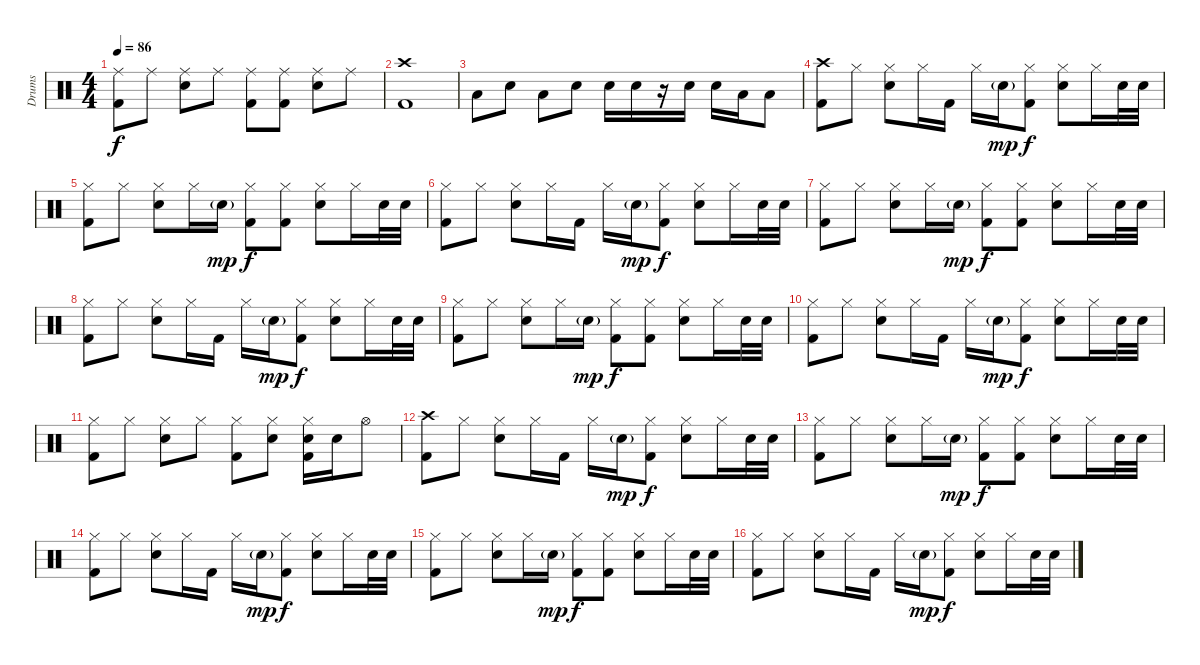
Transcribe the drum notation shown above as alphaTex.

\track ("Drums" "Drums") {instrument percussion}
\staff {score}
\articulation defaults
\ts (4 4)
\tempo 86
\clef neutral
\ks c
("Ride (middle)" "Kick (hit) 2").8{dy f} "Ride (middle)".8 ("Ride (middle)" "Snare (hit) 2").8 "Ride (middle)".8 ("Ride (middle)" "Kick (hit) 2").8 ("Ride (middle)" "Kick (hit) 2").8 ("Ride (middle)" "Snare (hit) 2").8 "Ride (middle)".8 |
("Crash high (hit)" "Kick (hit) 2").1 |
"Low Floor Tom (hit)".8 "Snare (hit) 2".8 "Low Tom (hit)".8 "Snare (hit) 2".8 "Snare (hit) 2".16 "Snare (hit) 2".16 r.16 "Snare (hit) 2".16 "Snare (hit) 2".16 "Low Tom (hit)".16 "Low Floor Tom (hit)".8 |
("Crash high (hit)" "Kick (hit) 2").8 "Hi-Hat (closed)".8 ("Hi-Hat (closed)" "Snare (hit) 2").8 "Hi-Hat (closed)".16 "Kick (hit) 2".16 "Hi-Hat (closed)".16 "Snare (hit) 2"{g}.16{dy mp} ("Hi-Hat (closed)" "Kick (hit) 2").8{dy f} ("Hi-Hat (closed)" "Snare (hit) 2").8 "Hi-Hat (closed)".16 "Snare (hit) 2".32 "Snare (hit) 2".32 |
("Hi-Hat (closed)" "Kick (hit) 2").8 "Hi-Hat (closed)".8 ("Hi-Hat (closed)" "Snare (hit) 2").8 "Hi-Hat (closed)".16 "Snare (hit) 2"{g}.16{dy mp} ("Hi-Hat (closed)" "Kick (hit) 2").8{dy f} ("Hi-Hat (closed)" "Kick (hit) 2").8 ("Hi-Hat (closed)" "Snare (hit) 2").8 "Hi-Hat (closed)".16 "Snare (hit) 2".32 "Snare (hit) 2".32 |
("Hi-Hat (closed)" "Kick (hit) 2").8 "Hi-Hat (closed)".8 ("Hi-Hat (closed)" "Snare (hit) 2").8 "Hi-Hat (closed)".16 "Kick (hit) 2".16 "Hi-Hat (closed)".16 "Snare (hit) 2"{g}.16{dy mp} ("Hi-Hat (closed)" "Kick (hit) 2").8{dy f} ("Hi-Hat (closed)" "Snare (hit) 2").8 "Hi-Hat (closed)".16 "Snare (hit) 2".32 "Snare (hit) 2".32 |
("Hi-Hat (closed)" "Kick (hit) 2").8 "Hi-Hat (closed)".8 ("Hi-Hat (closed)" "Snare (hit) 2").8 "Hi-Hat (closed)".16 "Snare (hit) 2"{g}.16{dy mp} ("Hi-Hat (closed)" "Kick (hit) 2").8{dy f} ("Hi-Hat (closed)" "Kick (hit) 2").8 ("Hi-Hat (closed)" "Snare (hit) 2").8 "Hi-Hat (closed)".16 "Snare (hit) 2".32 "Snare (hit) 2".32 |
("Hi-Hat (closed)" "Kick (hit) 2").8 "Hi-Hat (closed)".8 ("Hi-Hat (closed)" "Snare (hit) 2").8 "Hi-Hat (closed)".16 "Kick (hit) 2".16 "Hi-Hat (closed)".16 "Snare (hit) 2"{g}.16{dy mp} ("Hi-Hat (closed)" "Kick (hit) 2").8{dy f} ("Hi-Hat (closed)" "Snare (hit) 2").8 "Hi-Hat (closed)".16 "Snare (hit) 2".32 "Snare (hit) 2".32 |
("Hi-Hat (closed)" "Kick (hit) 2").8 "Hi-Hat (closed)".8 ("Hi-Hat (closed)" "Snare (hit) 2").8 "Hi-Hat (closed)".16 "Snare (hit) 2"{g}.16{dy mp} ("Hi-Hat (closed)" "Kick (hit) 2").8{dy f} ("Hi-Hat (closed)" "Kick (hit) 2").8 ("Hi-Hat (closed)" "Snare (hit) 2").8 "Hi-Hat (closed)".16 "Snare (hit) 2".32 "Snare (hit) 2".32 |
("Hi-Hat (closed)" "Kick (hit) 2").8 "Hi-Hat (closed)".8 ("Hi-Hat (closed)" "Snare (hit) 2").8 "Hi-Hat (closed)".16 "Kick (hit) 2".16 "Hi-Hat (closed)".16 "Snare (hit) 2"{g}.16{dy mp} ("Hi-Hat (closed)" "Kick (hit) 2").8{dy f} ("Hi-Hat (closed)" "Snare (hit) 2").8 "Hi-Hat (closed)".16 "Snare (hit) 2".32 "Snare (hit) 2".32 |
("Hi-Hat (closed)" "Kick (hit) 2").8 "Hi-Hat (closed)".8 ("Hi-Hat (closed)" "Snare (hit) 2").8 "Hi-Hat (closed)".8 ("Hi-Hat (closed)" "Kick (hit) 2").8 ("Hi-Hat (closed)" "Snare (hit) 2").8 ("Hi-Hat (closed)" "Snare (hit) 2" "Kick (hit) 2").16 "Snare (hit) 2".16 "Hi-Hat (open)".8 |
("Crash high (hit)" "Kick (hit) 2").8 "Hi-Hat (closed)".8 ("Hi-Hat (closed)" "Snare (hit) 2").8 "Hi-Hat (closed)".16 "Kick (hit) 2".16 "Hi-Hat (closed)".16 "Snare (hit) 2"{g}.16{dy mp} ("Hi-Hat (closed)" "Kick (hit) 2").8{dy f} ("Hi-Hat (closed)" "Snare (hit) 2").8 "Hi-Hat (closed)".16 "Snare (hit) 2".32 "Snare (hit) 2".32 |
("Hi-Hat (closed)" "Kick (hit) 2").8 "Hi-Hat (closed)".8 ("Hi-Hat (closed)" "Snare (hit) 2").8 "Hi-Hat (closed)".16 "Snare (hit) 2"{g}.16{dy mp} ("Hi-Hat (closed)" "Kick (hit) 2").8{dy f} ("Hi-Hat (closed)" "Kick (hit) 2").8 ("Hi-Hat (closed)" "Snare (hit) 2").8 "Hi-Hat (closed)".16 "Snare (hit) 2".32 "Snare (hit) 2".32 |
("Hi-Hat (closed)" "Kick (hit) 2").8 "Hi-Hat (closed)".8 ("Hi-Hat (closed)" "Snare (hit) 2").8 "Hi-Hat (closed)".16 "Kick (hit) 2".16 "Hi-Hat (closed)".16 "Snare (hit) 2"{g}.16{dy mp} ("Hi-Hat (closed)" "Kick (hit) 2").8{dy f} ("Hi-Hat (closed)" "Snare (hit) 2").8 "Hi-Hat (closed)".16 "Snare (hit) 2".32 "Snare (hit) 2".32 |
("Hi-Hat (closed)" "Kick (hit) 2").8 "Hi-Hat (closed)".8 ("Hi-Hat (closed)" "Snare (hit) 2").8 "Hi-Hat (closed)".16 "Snare (hit) 2"{g}.16{dy mp} ("Hi-Hat (closed)" "Kick (hit) 2").8{dy f} ("Hi-Hat (closed)" "Kick (hit) 2").8 ("Hi-Hat (closed)" "Snare (hit) 2").8 "Hi-Hat (closed)".16 "Snare (hit) 2".32 "Snare (hit) 2".32 |
("Hi-Hat (closed)" "Kick (hit) 2").8 "Hi-Hat (closed)".8 ("Hi-Hat (closed)" "Snare (hit) 2").8 "Hi-Hat (closed)".16 "Kick (hit) 2".16 "Hi-Hat (closed)".16 "Snare (hit) 2"{g}.16{dy mp} ("Hi-Hat (closed)" "Kick (hit) 2").8{dy f} ("Hi-Hat (closed)" "Snare (hit) 2").8 "Hi-Hat (closed)".16 "Snare (hit) 2".32 "Snare (hit) 2".32
